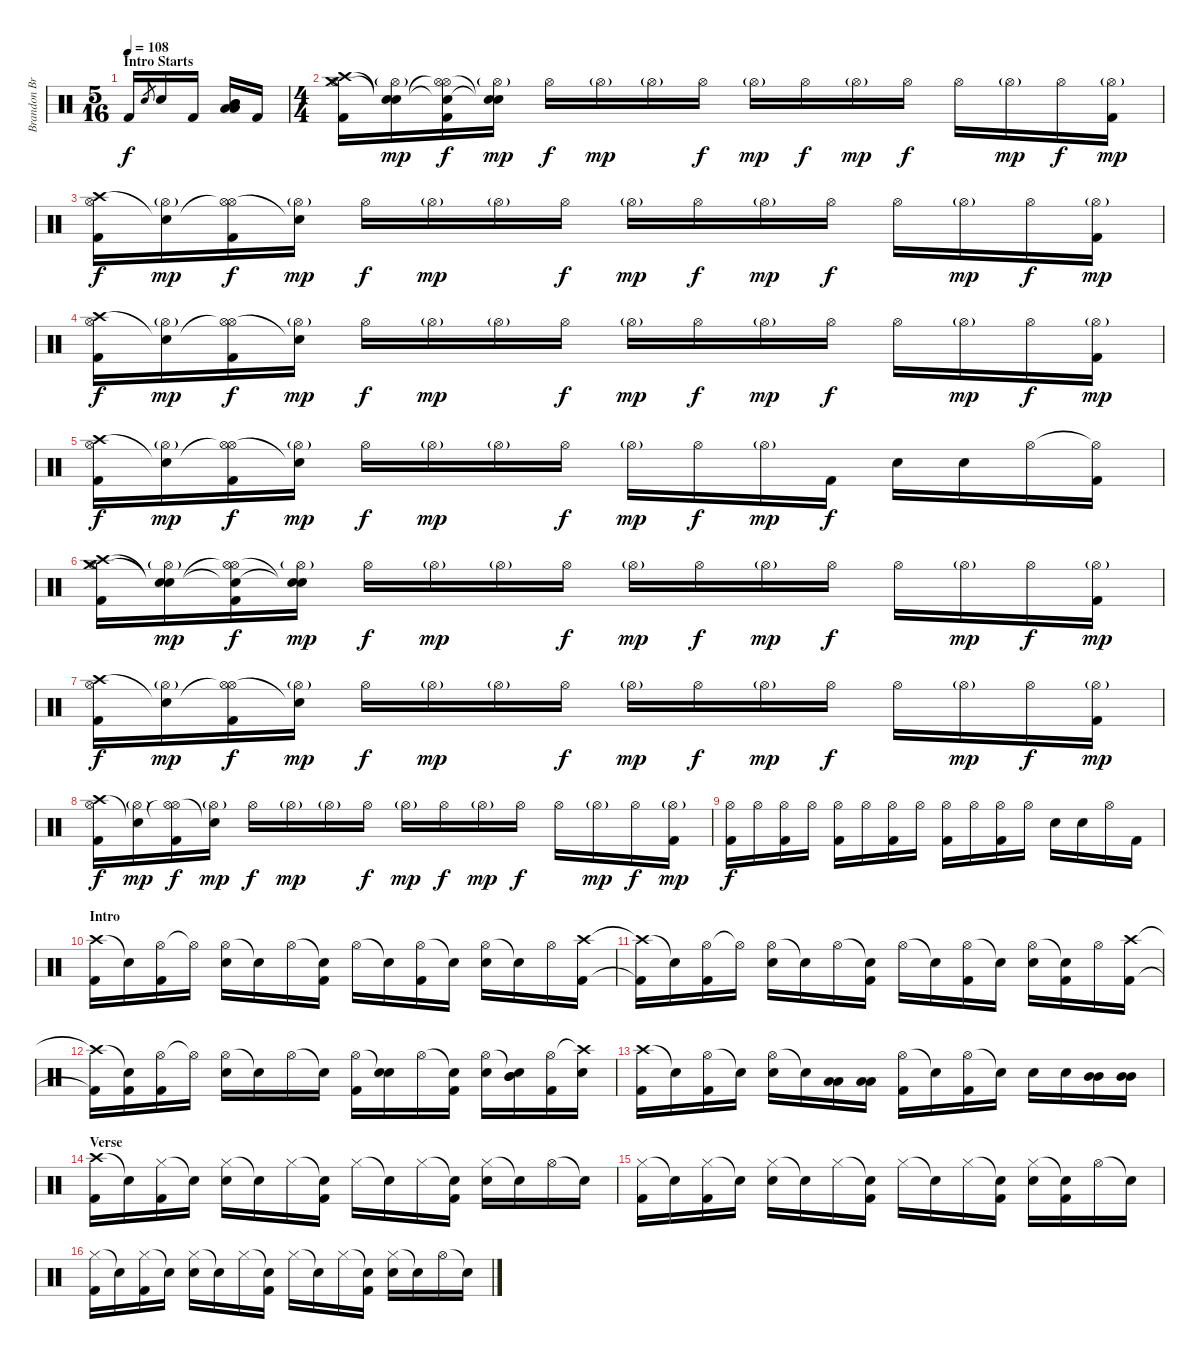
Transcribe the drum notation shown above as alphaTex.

\track ("Brandon Brown (Drums)" "Brandon Br") {instrument percussion}
\staff {score}
\articulation defaults
\ts (5 16)
\section ("" "Intro Starts")
\tempo 108
\clef neutral
\ks c "Kick (hit) 2".16{dy f} "Electric Snare (hit)".8{gr} "Electric Snare (hit)".16 "Kick (hit) 2".16
("Mid Tom (hit)" "Mid Tom (hit)" "Low Tom (hit)" "Low Tom (hit)").16 "Kick (hit) 2".16 |
\ts (4 4)
("Hi-Hat (open)" "Crash medium (hit)" "Crash high (hit)" "Kick (hit) 2").16 ("Hi-Hat (open)"{g} "Snare (hit)"{t} "Snare (hit)"{t}).16{dy mp} ("Hi-Hat (open)" "Hi-Hat (open)"{t} "Snare (hit)"{t} "Kick (hit) 2").16{dy f} ("Hi-Hat (open)"{g} "Snare (hit)"{t} "Snare (hit)"{t}).16{dy mp} "Hi-Hat (open)".16{dy f} "Hi-Hat (open)"{g}.16{dy mp} "Hi-Hat (open)"{g}.16 "Hi-Hat (open)".16{dy f} "Hi-Hat (open)"{g}.16{dy mp} "Hi-Hat (open)".16{dy f} "Hi-Hat (open)"{g}.16{dy mp} "Hi-Hat (open)".16{dy f} "Hi-Hat (open)".16 "Hi-Hat (open)"{g}.16{dy mp} "Hi-Hat (open)".16{dy f} ("Hi-Hat (open)"{g} "Kick (hit) 2").16{dy mp} |
("Hi-Hat (open)" "Crash high (hit)" "Kick (hit) 2").16{dy f} ("Hi-Hat (open)"{g} "Snare (hit)"{t}).16{dy mp} ("Hi-Hat (open)" "Hi-Hat (open)"{t} "Kick (hit) 2").16{dy f} ("Hi-Hat (open)"{g} "Snare (hit)"{t}).16{dy mp} "Hi-Hat (open)".16{dy f} "Hi-Hat (open)"{g}.16{dy mp} "Hi-Hat (open)"{g}.16 "Hi-Hat (open)".16{dy f} "Hi-Hat (open)"{g}.16{dy mp} "Hi-Hat (open)".16{dy f} "Hi-Hat (open)"{g}.16{dy mp} "Hi-Hat (open)".16{dy f} "Hi-Hat (open)".16 "Hi-Hat (open)"{g}.16{dy mp} "Hi-Hat (open)".16{dy f} ("Hi-Hat (open)"{g} "Kick (hit) 2").16{dy mp} |
("Hi-Hat (open)" "Crash high (hit)" "Kick (hit) 2").16{dy f} ("Hi-Hat (open)"{g} "Snare (hit)"{t}).16{dy mp} ("Hi-Hat (open)" "Hi-Hat (open)"{t} "Kick (hit) 2").16{dy f} ("Hi-Hat (open)"{g} "Snare (hit)"{t}).16{dy mp} "Hi-Hat (open)".16{dy f} "Hi-Hat (open)"{g}.16{dy mp} "Hi-Hat (open)"{g}.16 "Hi-Hat (open)".16{dy f} "Hi-Hat (open)"{g}.16{dy mp} "Hi-Hat (open)".16{dy f} "Hi-Hat (open)"{g}.16{dy mp} "Hi-Hat (open)".16{dy f} "Hi-Hat (open)".16 "Hi-Hat (open)"{g}.16{dy mp} "Hi-Hat (open)".16{dy f} ("Hi-Hat (open)"{g} "Kick (hit) 2").16{dy mp} |
("Hi-Hat (open)" "Crash high (hit)" "Kick (hit) 2").16{dy f} ("Hi-Hat (open)"{g} "Snare (hit)"{t}).16{dy mp} ("Hi-Hat (open)" "Hi-Hat (open)"{t} "Kick (hit) 2").16{dy f} ("Hi-Hat (open)"{g} "Snare (hit)"{t}).16{dy mp} "Hi-Hat (open)".16{dy f} "Hi-Hat (open)"{g}.16{dy mp} "Hi-Hat (open)"{g}.16 "Hi-Hat (open)".16{dy f} "Hi-Hat (open)"{g}.16{dy mp} "Hi-Hat (open)".16{dy f} "Hi-Hat (open)"{g}.16{dy mp} "Kick (hit) 2".16{dy f} "Electric Snare (hit)".16 "Electric Snare (hit)".16 "Hi-Hat (open)".16 ("Hi-Hat (open)"{t} "Kick (hit) 2").16 |
("Hi-Hat (open)" "Crash medium (hit)" "Crash high (hit)" "Kick (hit) 2").16 ("Hi-Hat (open)"{g} "Snare (hit)"{t} "Snare (hit)"{t}).16{dy mp} ("Hi-Hat (open)" "Hi-Hat (open)"{t} "Snare (hit)"{t} "Kick (hit) 2").16{dy f} ("Hi-Hat (open)"{g} "Snare (hit)"{t} "Snare (hit)"{t}).16{dy mp} "Hi-Hat (open)".16{dy f} "Hi-Hat (open)"{g}.16{dy mp} "Hi-Hat (open)"{g}.16 "Hi-Hat (open)".16{dy f} "Hi-Hat (open)"{g}.16{dy mp} "Hi-Hat (open)".16{dy f} "Hi-Hat (open)"{g}.16{dy mp} "Hi-Hat (open)".16{dy f} "Hi-Hat (open)".16 "Hi-Hat (open)"{g}.16{dy mp} "Hi-Hat (open)".16{dy f} ("Hi-Hat (open)"{g} "Kick (hit) 2").16{dy mp} |
("Hi-Hat (open)" "Crash high (hit)" "Kick (hit) 2").16{dy f} ("Hi-Hat (open)"{g} "Snare (hit)"{t}).16{dy mp} ("Hi-Hat (open)" "Hi-Hat (open)"{t} "Kick (hit) 2").16{dy f} ("Hi-Hat (open)"{g} "Snare (hit)"{t}).16{dy mp} "Hi-Hat (open)".16{dy f} "Hi-Hat (open)"{g}.16{dy mp} "Hi-Hat (open)"{g}.16 "Hi-Hat (open)".16{dy f} "Hi-Hat (open)"{g}.16{dy mp} "Hi-Hat (open)".16{dy f} "Hi-Hat (open)"{g}.16{dy mp} "Hi-Hat (open)".16{dy f} "Hi-Hat (open)".16 "Hi-Hat (open)"{g}.16{dy mp} "Hi-Hat (open)".16{dy f} ("Hi-Hat (open)"{g} "Kick (hit) 2").16{dy mp} |
("Hi-Hat (open)" "Crash high (hit)" "Kick (hit) 2").16{dy f} ("Hi-Hat (open)"{g} "Snare (hit)"{t}).16{dy mp} ("Hi-Hat (open)" "Hi-Hat (open)"{t} "Kick (hit) 2").16{dy f} ("Hi-Hat (open)"{g} "Snare (hit)"{t}).16{dy mp} "Hi-Hat (open)".16{dy f} "Hi-Hat (open)"{g}.16{dy mp} "Hi-Hat (open)"{g}.16 "Hi-Hat (open)".16{dy f} "Hi-Hat (open)"{g}.16{dy mp} "Hi-Hat (open)".16{dy f} "Hi-Hat (open)"{g}.16{dy mp} "Hi-Hat (open)".16{dy f} "Hi-Hat (open)".16 "Hi-Hat (open)"{g}.16{dy mp} "Hi-Hat (open)".16{dy f} ("Hi-Hat (open)"{g} "Kick (hit) 2").16{dy mp} |
("Hi-Hat (open)" "Kick (hit) 2").16{dy f} "Hi-Hat (open)".16 ("Hi-Hat (open)" "Kick (hit) 2").16 "Hi-Hat (open)".16 ("Hi-Hat (open)" "Kick (hit) 2").16 "Hi-Hat (open)".16 ("Hi-Hat (open)" "Kick (hit) 2").16 "Hi-Hat (open)".16 ("Hi-Hat (open)" "Kick (hit) 2").16 "Hi-Hat (open)".16 ("Hi-Hat (open)" "Kick (hit) 2").16 "Hi-Hat (open)".16 "Electric Snare (hit)".16 "Electric Snare (hit)".16 "Hi-Hat (open)".16 "Kick (hit) 2".16 |
\section ("" "Intro")
("Crash high (hit)" "Kick (hit) 2").16 "Snare (hit)"{t}.16 ("Hi-Hat (open)" "Kick (hit) 2").16 "Hi-Hat (open)"{t}.16 ("Hi-Hat (open)" "Electric Snare (hit)").16 "Snare (hit)"{t}.16 "Hi-Hat (open)".16 ("Snare (hit)"{t} "Kick (hit) 2").16 "Hi-Hat (open)".16 "Snare (hit)"{t}.16 ("Hi-Hat (open)" "Kick (hit) 2").16 "Snare (hit)"{t}.16 ("Hi-Hat (open)" "Electric Snare (hit)").16 "Snare (hit)"{t}.16 "Hi-Hat (open)".16 ("Crash high (hit)" "Kick (hit) 2").16 |
("Crash high (hit)"{t} "Kick (hit) 2"{t}).16 "Snare (hit)"{t}.16 ("Hi-Hat (open)" "Kick (hit) 2").16 "Hi-Hat (open)"{t}.16 ("Hi-Hat (open)" "Electric Snare (hit)").16 "Snare (hit)"{t}.16 "Hi-Hat (open)".16 ("Snare (hit)"{t} "Kick (hit) 2").16 "Hi-Hat (open)".16 "Snare (hit)"{t}.16 ("Hi-Hat (open)" "Kick (hit) 2").16 "Snare (hit)"{t}.16 ("Hi-Hat (open)" "Electric Snare (hit)").16 ("Snare (hit)"{t} "Kick (hit) 2").16 "Hi-Hat (open)".16 ("Crash high (hit)" "Kick (hit) 2").16 |
("Crash high (hit)"{t} "Kick (hit) 2"{t}).16 ("Snare (hit)"{t} "Kick (hit) 2").16 ("Hi-Hat (open)" "Kick (hit) 2").16 "Hi-Hat (open)"{t}.16 ("Hi-Hat (open)" "Electric Snare (hit)").16 "Snare (hit)"{t}.16 "Hi-Hat (open)".16 "Snare (hit)"{t}.16 ("Hi-Hat (open)" "Kick (hit) 2").16 ("Snare (hit)"{t} "Electric Snare (hit)").16 "Hi-Hat (open)".16 ("Snare (hit)"{t} "Kick (hit) 2").16 ("Hi-Hat (open)" "Electric Snare (hit)").16 ("Snare (hit)"{t} "Mid Tom (hit)" "Mid Tom (hit)").16 ("Hi-Hat (open)" "Kick (hit) 2").16 ("Crash high (hit)"{t} "Electric Snare (hit)").16 |
("Crash high (hit)" "Kick (hit) 2").16 "Snare (hit)"{t}.16 ("Hi-Hat (open)" "Kick (hit) 2").16 "Snare (hit)"{t}.16 ("Hi-Hat (open)" "Electric Snare (hit)").16 "Snare (hit)"{t}.16 ("Low Tom (hit)" "Low Tom (hit)").16 ("Low Tom (hit)" "Low Tom (hit)").16 ("Hi-Hat (open)" "Kick (hit) 2").16 "Snare (hit)"{t}.16 ("Hi-Hat (open)" "Kick (hit) 2").16 "Snare (hit)"{t}.16 "Electric Snare (hit)".16 "Electric Snare (hit)".16 ("Mid Tom (hit)" "Mid Tom (hit)").16 ("Mid Tom (hit)" "Mid Tom (hit)").16 |
\section ("" "Verse")
("Crash high (hit)" "Kick (hit) 2").16 "Snare (hit)"{t}.16 ("Hi-Hat (closed)" "Kick (hit) 2").16 "Snare (hit)"{t}.16 ("Hi-Hat (closed)" "Electric Snare (hit)").16 "Snare (hit)"{t}.16 "Hi-Hat (closed)".16 ("Snare (hit)"{t} "Kick (hit) 2").16 "Hi-Hat (closed)".16 "Snare (hit)"{t}.16 "Hi-Hat (closed)".16 ("Snare (hit)"{t} "Kick (hit) 2").16 ("Hi-Hat (closed)" "Electric Snare (hit)").16 "Snare (hit)"{t}.16 "Hi-Hat (open)".16 "Snare (hit)"{t}.16 |
("Hi-Hat (closed)" "Kick (hit) 2").16 "Snare (hit)"{t}.16 ("Hi-Hat (closed)" "Kick (hit) 2").16 "Snare (hit)"{t}.16 ("Hi-Hat (closed)" "Electric Snare (hit)").16 "Snare (hit)"{t}.16 "Hi-Hat (closed)".16 ("Snare (hit)"{t} "Kick (hit) 2").16 "Hi-Hat (closed)".16 "Snare (hit)"{t}.16 "Hi-Hat (closed)".16 ("Snare (hit)"{t} "Kick (hit) 2").16 ("Hi-Hat (closed)" "Electric Snare (hit)").16 ("Snare (hit)"{t} "Kick (hit) 2").16 "Hi-Hat (open)".16 "Snare (hit)"{t}.16 |
("Hi-Hat (closed)" "Kick (hit) 2").16 "Snare (hit)"{t}.16 ("Hi-Hat (closed)" "Kick (hit) 2").16 "Snare (hit)"{t}.16 ("Hi-Hat (closed)" "Electric Snare (hit)").16 "Snare (hit)"{t}.16 "Hi-Hat (closed)".16 ("Snare (hit)"{t} "Kick (hit) 2").16 "Hi-Hat (closed)".16 "Snare (hit)"{t}.16 "Hi-Hat (closed)".16 ("Snare (hit)"{t} "Kick (hit) 2").16 ("Hi-Hat (closed)" "Electric Snare (hit)").16 "Snare (hit)"{t}.16 "Hi-Hat (open)".16 "Snare (hit)"{t}.16
